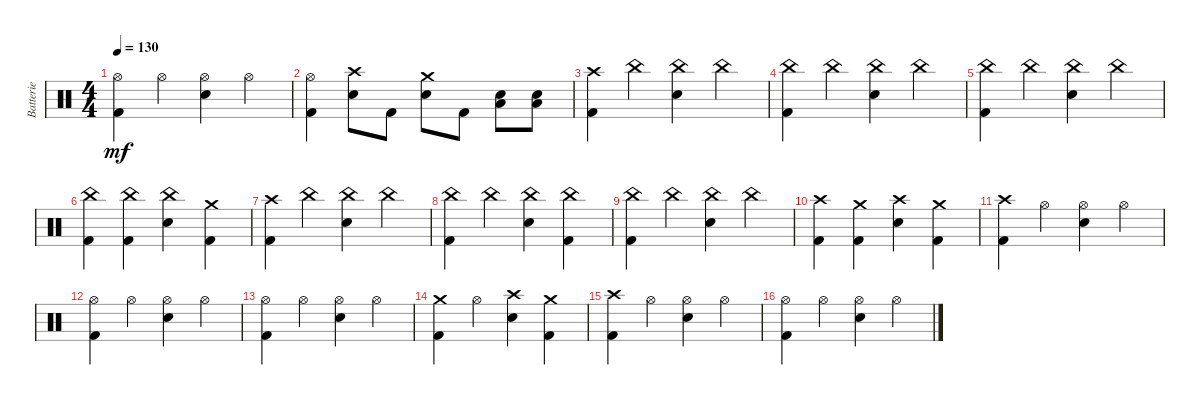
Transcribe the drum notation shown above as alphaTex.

\track ("Batterie" "Batterie") {instrument percussion}
\staff {score}
\articulation defaults
\ts (4 4)
\tempo 130
\clef neutral
\ks c
("Hi-Hat (open)" "Kick (hit) 2").4{dy mf} "Hi-Hat (open)".4 ("Hi-Hat (open)" "Electric Snare (hit)").4 "Hi-Hat (open)".4 |
("Hi-Hat (open)" "Kick (hit) 2").4 ("Crash high (hit)" "Electric Snare (hit)").8 "Kick (hit) 2".8 ("Crash medium (hit)" "Electric Snare (hit)").8 "Kick (hit) 2".8 ("Electric Snare (hit)" "Low Floor Tom (hit)").8 ("Electric Snare (hit)" "Low Floor Tom (hit)").8 |
("Crash high (hit)" "Kick (hit) 2").4 "China (hit)".4 ("China (hit)" "Electric Snare (hit)").4 "China (hit)".4 |
("China (hit)" "Kick (hit) 2").4 "China (hit)".4 ("China (hit)" "Electric Snare (hit)").4 "China (hit)".4 |
("China (hit)" "Kick (hit) 2").4 "China (hit)".4 ("China (hit)" "Electric Snare (hit)").4 "China (hit)".4 |
("China (hit)" "Kick (hit) 2").4 ("China (hit)" "Kick (hit) 2").4 ("China (hit)" "Electric Snare (hit)").4 ("Crash medium (hit)" "Kick (hit) 2").4 |
("Crash high (hit)" "Kick (hit) 2").4 "China (hit)".4 ("China (hit)" "Electric Snare (hit)").4 "China (hit)".4 |
("China (hit)" "Kick (hit) 2").4 "China (hit)".4 ("China (hit)" "Electric Snare (hit)").4 ("China (hit)" "Kick (hit) 2").4 |
("China (hit)" "Kick (hit) 2").4 "China (hit)".4 ("China (hit)" "Electric Snare (hit)").4 "China (hit)".4 |
("Crash high (hit)" "Kick (hit) 2").4 ("Crash medium (hit)" "Kick (hit) 2").4 ("Crash high (hit)" "Electric Snare (hit)").4 ("Crash medium (hit)" "Kick (hit) 2").4 |
("Crash high (hit)" "Kick (hit) 2").4 "Hi-Hat (open)".4 ("Hi-Hat (open)" "Electric Snare (hit)").4 "Hi-Hat (open)".4 |
("Hi-Hat (open)" "Kick (hit) 2").4 "Hi-Hat (open)".4 ("Hi-Hat (open)" "Electric Snare (hit)").4 "Hi-Hat (open)".4 |
("Hi-Hat (open)" "Kick (hit) 2").4 "Hi-Hat (open)".4 ("Hi-Hat (open)" "Electric Snare (hit)").4 "Hi-Hat (open)".4 |
("Crash medium (hit)" "Kick (hit) 2").4 "Hi-Hat (open)".4 ("Crash high (hit)" "Electric Snare (hit)").4 ("Crash medium (hit)" "Kick (hit) 2").4 |
("Crash high (hit)" "Kick (hit) 2").4 "Hi-Hat (open)".4 ("Hi-Hat (open)" "Electric Snare (hit)").4 "Hi-Hat (open)".4 |
("Hi-Hat (open)" "Kick (hit) 2").4 "Hi-Hat (open)".4 ("Hi-Hat (open)" "Electric Snare (hit)").4 "Hi-Hat (open)".4
